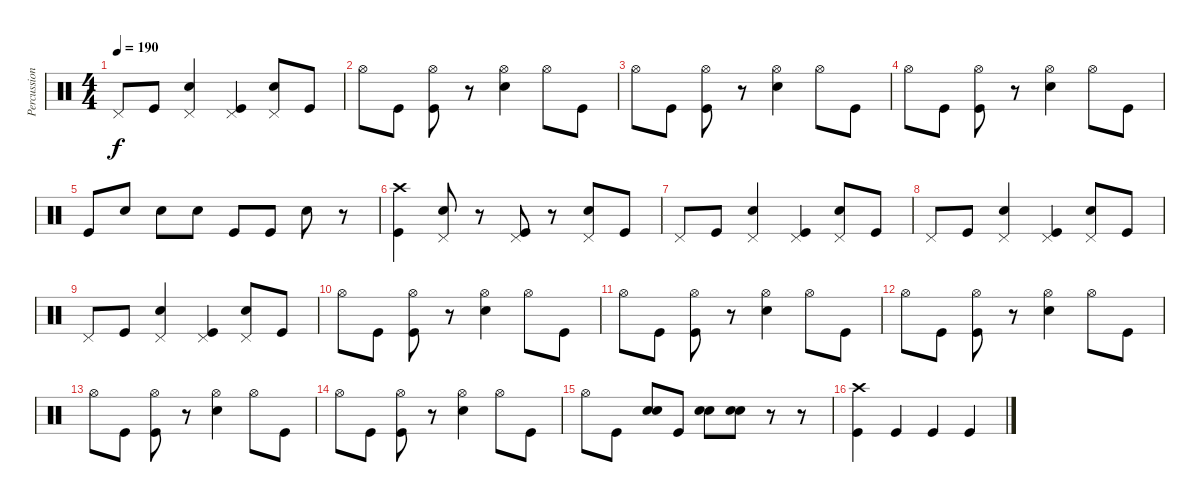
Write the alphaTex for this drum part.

\track ("Percussion" "Percussion") {mute instrument percussion}
\staff {score}
\articulation defaults
\ts (4 4)
\tempo 190
\clef neutral
\ks c "Pedal Hi-Hat (hit)".8{dy f} "Kick (hit)".8
("Pedal Hi-Hat (hit)" "Snare (hit) 2").4 ("Pedal Hi-Hat (hit)" "Kick (hit)").4 ("Pedal Hi-Hat (hit)" "Snare (hit) 2").8 "Kick (hit)".8 |
"Hi-Hat (open)".8 "Kick (hit)".8 ("Hi-Hat (open)" "Kick (hit)").8 r.8 ("Hi-Hat (open)" "Snare (hit) 2").4 "Hi-Hat (open)".8 "Kick (hit)".8 |
"Hi-Hat (open)".8 "Kick (hit)".8 ("Hi-Hat (open)" "Kick (hit)").8 r.8 ("Hi-Hat (open)" "Snare (hit) 2").4 "Hi-Hat (open)".8 "Kick (hit)".8 |
"Hi-Hat (open)".8 "Kick (hit)".8 ("Hi-Hat (open)" "Kick (hit)").8 r.8 ("Hi-Hat (open)" "Snare (hit) 2").4 "Hi-Hat (open)".8 "Kick (hit)".8 |
"Kick (hit)".8 "Snare (hit) 2".8 "Snare (hit) 2".8 "Snare (hit) 2".8 "Kick (hit)".8 "Kick (hit)".8 "Snare (hit) 2".8 r.8 |
("Crash high (hit)" "Kick (hit)").4 ("Pedal Hi-Hat (hit)" "Snare (hit) 2").8 r.8 ("Pedal Hi-Hat (hit)" "Kick (hit)").8 r.8 ("Pedal Hi-Hat (hit)" "Snare (hit) 2").8 "Kick (hit)".8 |
"Pedal Hi-Hat (hit)".8 "Kick (hit)".8 ("Pedal Hi-Hat (hit)" "Snare (hit) 2").4 ("Pedal Hi-Hat (hit)" "Kick (hit)").4 ("Pedal Hi-Hat (hit)" "Snare (hit) 2").8 "Kick (hit)".8 |
"Pedal Hi-Hat (hit)".8 "Kick (hit)".8 ("Pedal Hi-Hat (hit)" "Snare (hit) 2").4 ("Pedal Hi-Hat (hit)" "Kick (hit)").4 ("Pedal Hi-Hat (hit)" "Snare (hit) 2").8 "Kick (hit)".8 |
"Pedal Hi-Hat (hit)".8 "Kick (hit)".8 ("Pedal Hi-Hat (hit)" "Snare (hit) 2").4 ("Pedal Hi-Hat (hit)" "Kick (hit)").4 ("Pedal Hi-Hat (hit)" "Snare (hit) 2").8 "Kick (hit)".8 |
"Hi-Hat (open)".8 "Kick (hit)".8 ("Hi-Hat (open)" "Kick (hit)").8 r.8 ("Hi-Hat (open)" "Snare (hit) 2").4 "Hi-Hat (open)".8 "Kick (hit)".8 |
"Hi-Hat (open)".8 "Kick (hit)".8 ("Hi-Hat (open)" "Kick (hit)").8 r.8 ("Hi-Hat (open)" "Snare (hit) 2").4 "Hi-Hat (open)".8 "Kick (hit)".8 |
"Hi-Hat (open)".8 "Kick (hit)".8 ("Hi-Hat (open)" "Kick (hit)").8 r.8 ("Hi-Hat (open)" "Snare (hit) 2").4 "Hi-Hat (open)".8 "Kick (hit)".8 |
"Hi-Hat (open)".8 "Kick (hit)".8 ("Hi-Hat (open)" "Kick (hit)").8 r.8 ("Hi-Hat (open)" "Snare (hit) 2").4 "Hi-Hat (open)".8 "Kick (hit)".8 |
"Hi-Hat (open)".8 "Kick (hit)".8 ("Hi-Hat (open)" "Kick (hit)").8 r.8 ("Hi-Hat (open)" "Snare (hit) 2").4 "Hi-Hat (open)".8 "Kick (hit)".8 |
"Hi-Hat (open)".8 "Kick (hit)".8 ("Snare (hit) 2" "Snare (hit) 2").8 "Kick (hit)".8 ("Snare (hit) 2" "Snare (hit) 2").8 ("Snare (hit) 2" "Snare (hit) 2").8 r.8 r.8 |
("Crash high (hit)" "Kick (hit)").4 "Kick (hit)".4 "Kick (hit)".4 "Kick (hit)".4
